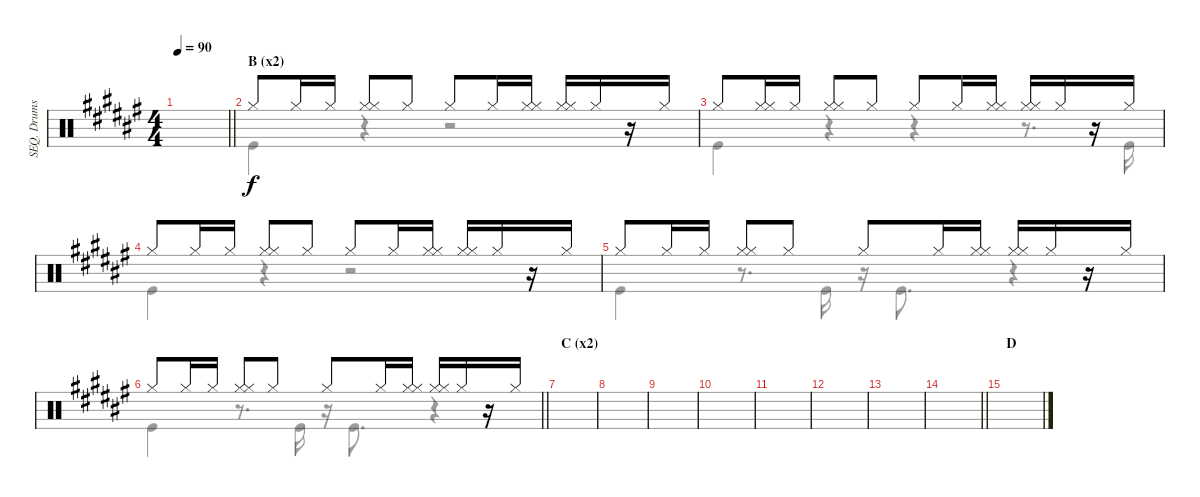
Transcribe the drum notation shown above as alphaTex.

\track ("SEQ. Drums" "SEQ. Drums") {instrument percussion}
\staff {score}
\articulation defaults
\voice
\ts (4 4)
\tempo 90
\clef neutral
\barLineRight lightlight
\ks f#
|
\section ("" "B (x2)")
"Hi-Hat (closed)".8 "Hi-Hat (closed)".16 "Hi-Hat (closed)".16 ("Hi-Hat (closed)" "Hi-Hat (closed)").8 "Hi-Hat (closed)".8 "Hi-Hat (closed)".8 "Hi-Hat (closed)".16 ("Hi-Hat (closed)" "Hi-Hat (closed)").16 ("Hi-Hat (closed)" "Hi-Hat (closed)").16 "Hi-Hat (closed)".16 r.16 "Hi-Hat (closed)".16 |
"Hi-Hat (closed)".8 ("Hi-Hat (closed)" "Hi-Hat (closed)").16 "Hi-Hat (closed)".16 ("Hi-Hat (closed)" "Hi-Hat (closed)").8 "Hi-Hat (closed)".8 "Hi-Hat (closed)".8 "Hi-Hat (closed)".16 ("Hi-Hat (closed)" "Hi-Hat (closed)").16 ("Hi-Hat (closed)" "Hi-Hat (closed)").16 "Hi-Hat (closed)".16 r.16 "Hi-Hat (closed)".16 |
"Hi-Hat (closed)".8 "Hi-Hat (closed)".16 "Hi-Hat (closed)".16 ("Hi-Hat (closed)" "Hi-Hat (closed)").8 "Hi-Hat (closed)".8 "Hi-Hat (closed)".8 "Hi-Hat (closed)".16 ("Hi-Hat (closed)" "Hi-Hat (closed)").16 ("Hi-Hat (closed)" "Hi-Hat (closed)").16 "Hi-Hat (closed)".16 r.16 "Hi-Hat (closed)".16 |
"Hi-Hat (closed)".8 "Hi-Hat (closed)".16 "Hi-Hat (closed)".16 ("Hi-Hat (closed)" "Hi-Hat (closed)").8 "Hi-Hat (closed)".8 "Hi-Hat (closed)".8 "Hi-Hat (closed)".16 ("Hi-Hat (closed)" "Hi-Hat (closed)").16 ("Hi-Hat (closed)" "Hi-Hat (closed)").16 "Hi-Hat (closed)".16 r.16 "Hi-Hat (closed)".16 |
\barLineRight lightlight "Hi-Hat (closed)".8 "Hi-Hat (closed)".16 "Hi-Hat (closed)".16
("Hi-Hat (closed)" "Hi-Hat (closed)").8 "Hi-Hat (closed)".8 "Hi-Hat (closed)".8 "Hi-Hat (closed)".16 ("Hi-Hat (closed)" "Hi-Hat (closed)").16 ("Hi-Hat (closed)" "Hi-Hat (closed)").16 "Hi-Hat (closed)".16 r.16 "Hi-Hat (closed)".16 |
\section ("" "C (x2)")
|
|
|
|
|
|
|
\barLineRight lightlight
|
\section ("" "D")
|
\voice
\clef neutral
\ottava regular
\simile none
\barLineRight lightlight
\ks f#
|
"Kick (hit)".4 r.4 r.2 |
"Kick (hit)".4 r.4 r.4 r.8{d} "Kick (hit)".16 |
"Kick (hit)".4 r.4 r.2 |
"Kick (hit)".4 r.8{d} "Kick (hit)".16 r.16 "Kick (hit)".8{d} r.4 |
\barLineRight lightlight "Kick (hit)".4
r.8{d} "Kick (hit)".16 r.16 "Kick (hit)".8{d} r.4 |
|
|
|
|
|
|
|
\barLineRight lightlight
|
|
